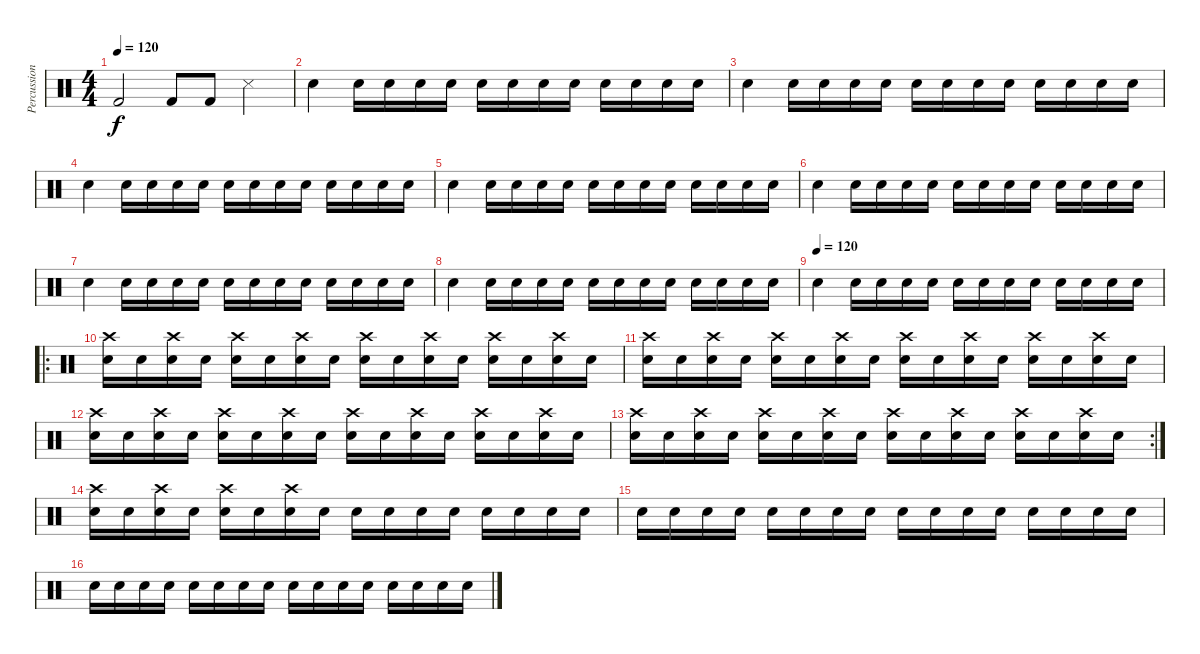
\track ("Percussion" "Percussion") {instrument percussion}
\staff {score}
\articulation defaults
\ts (4 4)
\tempo 120
\clef neutral
\ks c "Kick (hit) 2".2{dy f} "Kick (hit) 2".8 "Kick (hit) 2".8 "Snare (side stick) 3".4
|
"Snare (hit) 2".4 "Snare (hit) 2".16 "Snare (hit) 2".16 "Snare (hit) 2".16 "Snare (hit) 2".16 "Snare (hit) 2".16 "Snare (hit) 2".16 "Snare (hit) 2".16 "Snare (hit) 2".16 "Snare (hit) 2".16 "Snare (hit) 2".16 "Snare (hit) 2".16 "Snare (hit) 2".16 |
"Snare (hit) 2".4 "Snare (hit) 2".16 "Snare (hit) 2".16 "Snare (hit) 2".16 "Snare (hit) 2".16 "Snare (hit) 2".16 "Snare (hit) 2".16 "Snare (hit) 2".16 "Snare (hit) 2".16 "Snare (hit) 2".16 "Snare (hit) 2".16 "Snare (hit) 2".16 "Snare (hit) 2".16 |
"Snare (hit) 2".4 "Snare (hit) 2".16 "Snare (hit) 2".16 "Snare (hit) 2".16 "Snare (hit) 2".16 "Snare (hit) 2".16 "Snare (hit) 2".16 "Snare (hit) 2".16 "Snare (hit) 2".16 "Snare (hit) 2".16 "Snare (hit) 2".16 "Snare (hit) 2".16 "Snare (hit) 2".16 |
"Snare (hit) 2".4 "Snare (hit) 2".16 "Snare (hit) 2".16 "Snare (hit) 2".16 "Snare (hit) 2".16 "Snare (hit) 2".16 "Snare (hit) 2".16 "Snare (hit) 2".16 "Snare (hit) 2".16 "Snare (hit) 2".16 "Snare (hit) 2".16 "Snare (hit) 2".16 "Snare (hit) 2".16 |
"Snare (hit) 2".4 "Snare (hit) 2".16 "Snare (hit) 2".16 "Snare (hit) 2".16 "Snare (hit) 2".16 "Snare (hit) 2".16 "Snare (hit) 2".16 "Snare (hit) 2".16 "Snare (hit) 2".16 "Snare (hit) 2".16 "Snare (hit) 2".16 "Snare (hit) 2".16 "Snare (hit) 2".16 |
"Snare (hit) 2".4 "Snare (hit) 2".16 "Snare (hit) 2".16 "Snare (hit) 2".16 "Snare (hit) 2".16 "Snare (hit) 2".16 "Snare (hit) 2".16 "Snare (hit) 2".16 "Snare (hit) 2".16 "Snare (hit) 2".16 "Snare (hit) 2".16 "Snare (hit) 2".16 "Snare (hit) 2".16 |
"Snare (hit) 2".4 "Snare (hit) 2".16 "Snare (hit) 2".16 "Snare (hit) 2".16 "Snare (hit) 2".16 "Snare (hit) 2".16 "Snare (hit) 2".16 "Snare (hit) 2".16 "Snare (hit) 2".16 "Snare (hit) 2".16 "Snare (hit) 2".16 "Snare (hit) 2".16 "Snare (hit) 2".16 |
\tempo (120)
"Snare (hit) 2".4 "Snare (hit) 2".16 "Snare (hit) 2".16 "Snare (hit) 2".16 "Snare (hit) 2".16 "Snare (hit) 2".16 "Snare (hit) 2".16 "Snare (hit) 2".16 "Snare (hit) 2".16 "Snare (hit) 2".16 "Snare (hit) 2".16 "Snare (hit) 2".16 "Snare (hit) 2".16 |
\ro
("Snare (hit) 2" "Crash high (hit)").16 "Snare (hit) 2".16 ("Snare (hit) 2" "Crash high (hit)").16 "Snare (hit) 2".16 ("Snare (hit) 2" "Crash high (hit)").16 "Snare (hit) 2".16 ("Snare (hit) 2" "Crash high (hit)").16 "Snare (hit) 2".16 ("Snare (hit) 2" "Crash high (hit)").16 "Snare (hit) 2".16 ("Snare (hit) 2" "Crash high (hit)").16 "Snare (hit) 2".16 ("Snare (hit) 2" "Crash high (hit)").16 "Snare (hit) 2".16 ("Snare (hit) 2" "Crash high (hit)").16 "Snare (hit) 2".16 |
("Snare (hit) 2" "Crash high (hit)").16 "Snare (hit) 2".16 ("Snare (hit) 2" "Crash high (hit)").16 "Snare (hit) 2".16 ("Snare (hit) 2" "Crash high (hit)").16 "Snare (hit) 2".16 ("Snare (hit) 2" "Crash high (hit)").16 "Snare (hit) 2".16 ("Snare (hit) 2" "Crash high (hit)").16 "Snare (hit) 2".16 ("Snare (hit) 2" "Crash high (hit)").16 "Snare (hit) 2".16 ("Snare (hit) 2" "Crash high (hit)").16 "Snare (hit) 2".16 ("Snare (hit) 2" "Crash high (hit)").16 "Snare (hit) 2".16 |
("Snare (hit) 2" "Crash high (hit)").16 "Snare (hit) 2".16 ("Snare (hit) 2" "Crash high (hit)").16 "Snare (hit) 2".16 ("Snare (hit) 2" "Crash high (hit)").16 "Snare (hit) 2".16 ("Snare (hit) 2" "Crash high (hit)").16 "Snare (hit) 2".16 ("Snare (hit) 2" "Crash high (hit)").16 "Snare (hit) 2".16 ("Snare (hit) 2" "Crash high (hit)").16 "Snare (hit) 2".16 ("Snare (hit) 2" "Crash high (hit)").16 "Snare (hit) 2".16 ("Snare (hit) 2" "Crash high (hit)").16 "Snare (hit) 2".16 |
\rc 2
("Snare (hit) 2" "Crash high (hit)").16 "Snare (hit) 2".16 ("Snare (hit) 2" "Crash high (hit)").16 "Snare (hit) 2".16 ("Snare (hit) 2" "Crash high (hit)").16 "Snare (hit) 2".16 ("Snare (hit) 2" "Crash high (hit)").16 "Snare (hit) 2".16 ("Snare (hit) 2" "Crash high (hit)").16 "Snare (hit) 2".16 ("Snare (hit) 2" "Crash high (hit)").16 "Snare (hit) 2".16 ("Snare (hit) 2" "Crash high (hit)").16 "Snare (hit) 2".16 ("Snare (hit) 2" "Crash high (hit)").16 "Snare (hit) 2".16 |
("Snare (hit) 2" "Crash high (hit)").16 "Snare (hit) 2".16 ("Snare (hit) 2" "Crash high (hit)").16 "Snare (hit) 2".16 ("Snare (hit) 2" "Crash high (hit)").16 "Snare (hit) 2".16 ("Snare (hit) 2" "Crash high (hit)").16 "Snare (hit) 2".16 "Snare (hit) 2".16 "Snare (hit) 2".16 "Snare (hit) 2".16 "Snare (hit) 2".16 "Snare (hit) 2".16 "Snare (hit) 2".16 "Snare (hit) 2".16 "Snare (hit) 2".16 |
"Snare (hit) 2".16 "Snare (hit) 2".16 "Snare (hit) 2".16 "Snare (hit) 2".16 "Snare (hit) 2".16 "Snare (hit) 2".16 "Snare (hit) 2".16 "Snare (hit) 2".16 "Snare (hit) 2".16 "Snare (hit) 2".16 "Snare (hit) 2".16 "Snare (hit) 2".16 "Snare (hit) 2".16 "Snare (hit) 2".16 "Snare (hit) 2".16 "Snare (hit) 2".16 |
"Snare (hit) 2".16 "Snare (hit) 2".16 "Snare (hit) 2".16 "Snare (hit) 2".16 "Snare (hit) 2".16 "Snare (hit) 2".16 "Snare (hit) 2".16 "Snare (hit) 2".16 "Snare (hit) 2".16 "Snare (hit) 2".16 "Snare (hit) 2".16 "Snare (hit) 2".16 "Snare (hit) 2".16 "Snare (hit) 2".16 "Snare (hit) 2".16 "Snare (hit) 2".16
